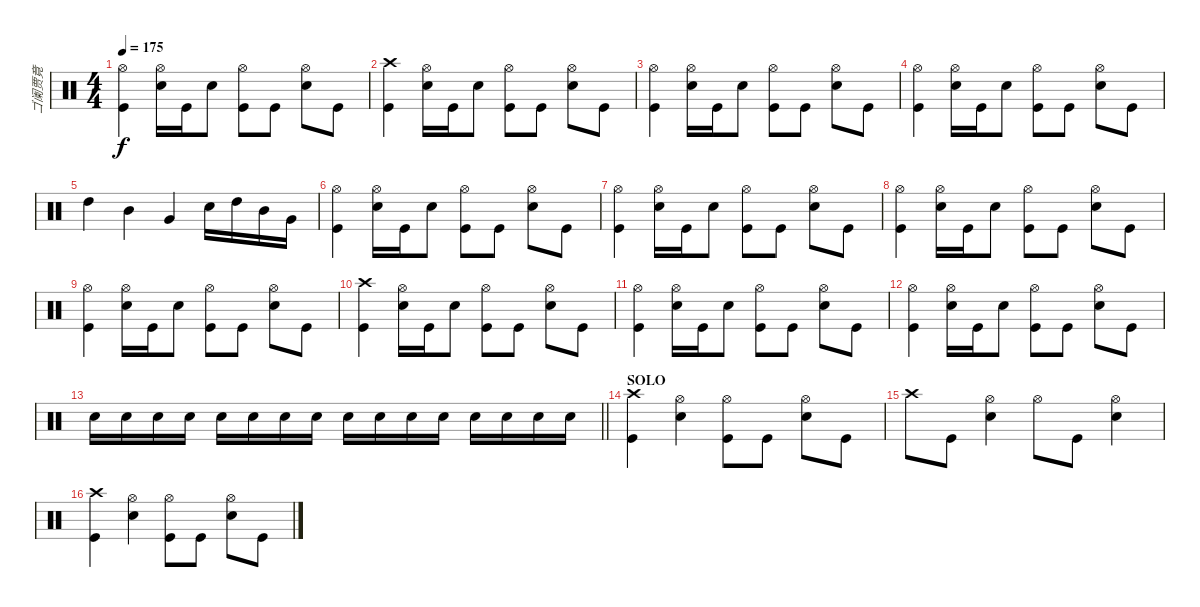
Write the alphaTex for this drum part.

\track ("ゴ阑贾竟" "ゴ阑贾竟") {instrument percussion}
\staff {score}
\articulation defaults
\ts (4 4)
\tempo 175
\clef neutral
\ks c
("Hi-Hat (open)" "Kick (hit)").4{dy f} ("Snare (hit) 2" "Hi-Hat (open)").16 "Kick (hit)".16 "Snare (hit) 2".8 ("Kick (hit)" "Hi-Hat (open)").8 "Kick (hit)".8 ("Snare (hit) 2" "Hi-Hat (open)").8 "Kick (hit)".8 |
("Crash high (hit)" "Kick (hit)").4 ("Snare (hit) 2" "Hi-Hat (open)").16 "Kick (hit)".16 "Snare (hit) 2".8 ("Kick (hit)" "Hi-Hat (open)").8 "Kick (hit)".8 ("Snare (hit) 2" "Hi-Hat (open)").8 "Kick (hit)".8 |
("Hi-Hat (open)" "Kick (hit)").4 ("Snare (hit) 2" "Hi-Hat (open)").16 "Kick (hit)".16 "Snare (hit) 2".8 ("Kick (hit)" "Hi-Hat (open)").8 "Kick (hit)".8 ("Snare (hit) 2" "Hi-Hat (open)").8 "Kick (hit)".8 |
("Hi-Hat (open)" "Kick (hit)").4 ("Snare (hit) 2" "Hi-Hat (open)").16 "Kick (hit)".16 "Snare (hit) 2".8 ("Kick (hit)" "Hi-Hat (open)").8 "Kick (hit)".8 ("Snare (hit) 2" "Hi-Hat (open)").8 "Kick (hit)".8 |
"High Tom (hit)".4 "Mid Tom (hit)".4 "Very Low Tom (hit)".4 "Snare (hit) 2".16 "High Tom (hit)".16 "Mid Tom (hit)".16 "Very Low Tom (hit)".16 |
("Hi-Hat (open)" "Kick (hit)").4 ("Snare (hit) 2" "Hi-Hat (open)").16 "Kick (hit)".16 "Snare (hit) 2".8 ("Kick (hit)" "Hi-Hat (open)").8 "Kick (hit)".8 ("Snare (hit) 2" "Hi-Hat (open)").8 "Kick (hit)".8 |
("Hi-Hat (open)" "Kick (hit)").4 ("Snare (hit) 2" "Hi-Hat (open)").16 "Kick (hit)".16 "Snare (hit) 2".8 ("Kick (hit)" "Hi-Hat (open)").8 "Kick (hit)".8 ("Snare (hit) 2" "Hi-Hat (open)").8 "Kick (hit)".8 |
("Hi-Hat (open)" "Kick (hit)").4 ("Snare (hit) 2" "Hi-Hat (open)").16 "Kick (hit)".16 "Snare (hit) 2".8 ("Kick (hit)" "Hi-Hat (open)").8 "Kick (hit)".8 ("Snare (hit) 2" "Hi-Hat (open)").8 "Kick (hit)".8 |
("Hi-Hat (open)" "Kick (hit)").4 ("Snare (hit) 2" "Hi-Hat (open)").16 "Kick (hit)".16 "Snare (hit) 2".8 ("Kick (hit)" "Hi-Hat (open)").8 "Kick (hit)".8 ("Snare (hit) 2" "Hi-Hat (open)").8 "Kick (hit)".8 |
("Crash high (hit)" "Kick (hit)").4 ("Snare (hit) 2" "Hi-Hat (open)").16 "Kick (hit)".16 "Snare (hit) 2".8 ("Kick (hit)" "Hi-Hat (open)").8 "Kick (hit)".8 ("Snare (hit) 2" "Hi-Hat (open)").8 "Kick (hit)".8 |
("Hi-Hat (open)" "Kick (hit)").4 ("Snare (hit) 2" "Hi-Hat (open)").16 "Kick (hit)".16 "Snare (hit) 2".8 ("Kick (hit)" "Hi-Hat (open)").8 "Kick (hit)".8 ("Snare (hit) 2" "Hi-Hat (open)").8 "Kick (hit)".8 |
("Hi-Hat (open)" "Kick (hit)").4 ("Snare (hit) 2" "Hi-Hat (open)").16 "Kick (hit)".16 "Snare (hit) 2".8 ("Kick (hit)" "Hi-Hat (open)").8 "Kick (hit)".8 ("Snare (hit) 2" "Hi-Hat (open)").8 "Kick (hit)".8 |
\barLineRight lightlight "Snare (hit) 2".16 "Snare (hit) 2".16 "Snare (hit) 2".16 "Snare (hit) 2".16 "Snare (hit) 2".16 "Snare (hit) 2".16 "Snare (hit) 2".16 "Snare (hit) 2".16 "Snare (hit) 2".16 "Snare (hit) 2".16 "Snare (hit) 2".16 "Snare (hit) 2".16 "Snare (hit) 2".16 "Snare (hit) 2".16 "Snare (hit) 2".16 "Snare (hit) 2".16
|
\section ("" "SOLO")
("Kick (hit)" "Crash high (hit)").4 ("Snare (hit) 2" "Hi-Hat (open)").4 ("Kick (hit)" "Hi-Hat (open)").8 "Kick (hit)".8 ("Hi-Hat (open)" "Snare (hit) 2").8 "Kick (hit)".8 |
"Crash high (hit)".8 "Kick (hit)".8 ("Hi-Hat (open)" "Snare (hit) 2").4 "Hi-Hat (open)".8 "Kick (hit)".8 ("Hi-Hat (open)" "Snare (hit) 2").4 |
("Crash high (hit)" "Kick (hit)").4 ("Hi-Hat (open)" "Snare (hit) 2").4 ("Kick (hit)" "Hi-Hat (open)").8 "Kick (hit)".8 ("Hi-Hat (open)" "Snare (hit) 2").8 "Kick (hit)".8
